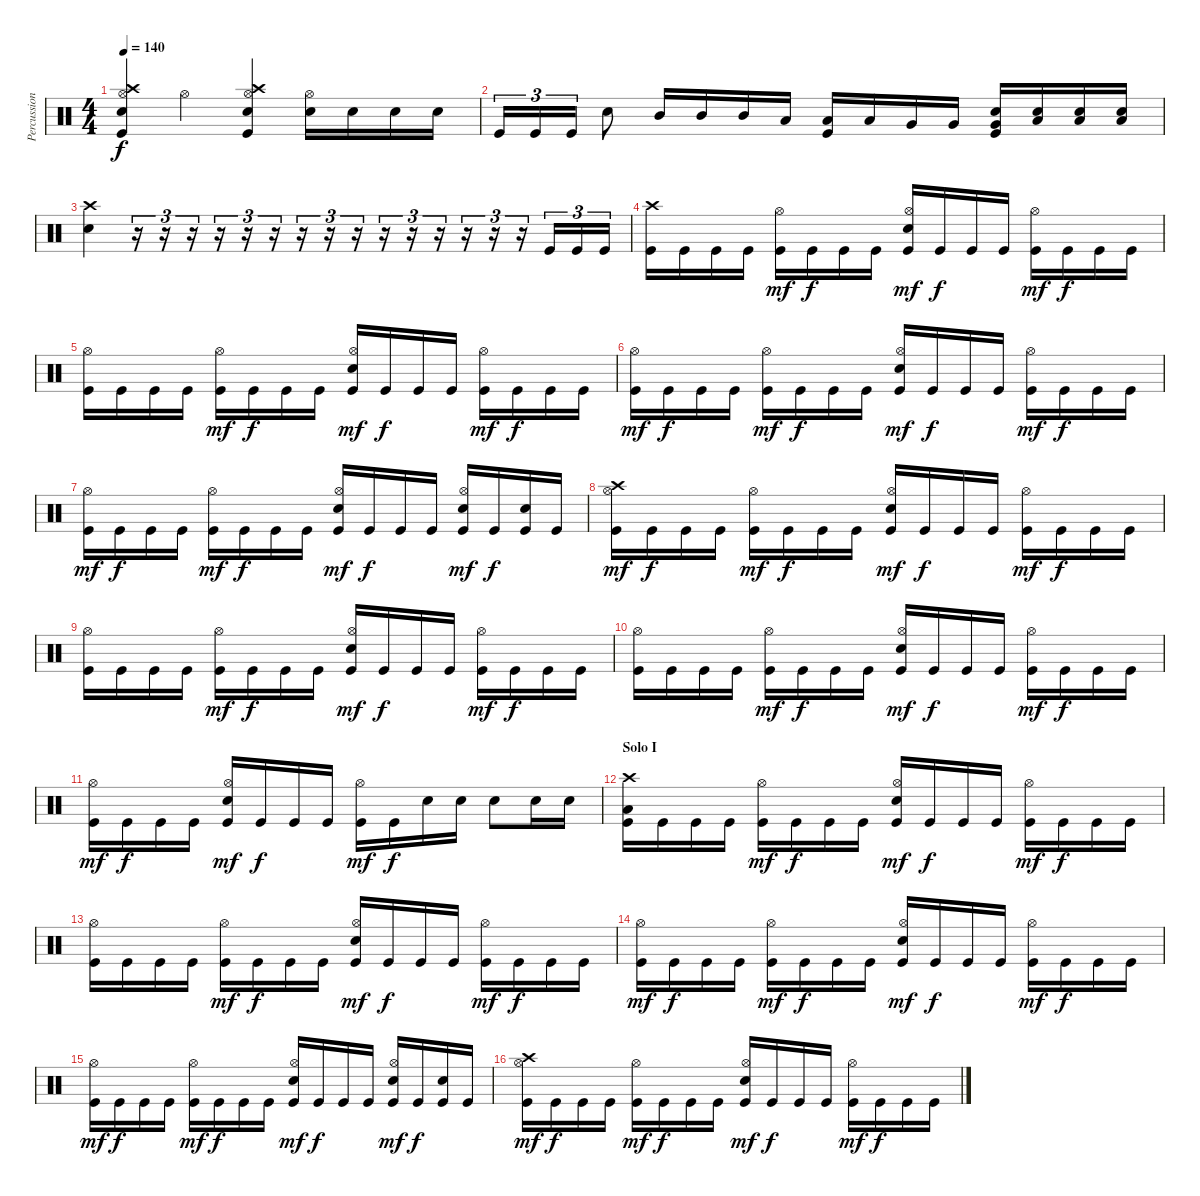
\track ("Percussion" "Percussion") {instrument percussion}
\staff {score}
\articulation defaults
\ts (4 4)
\tempo 140
\clef neutral
\ks c
("Electric Snare (hit)" "Crash high (hit)" "Hi-Hat (open)" "Kick (hit)").4{dy f} "Hi-Hat (open)".4 ("Electric Snare (hit)" "Crash high (hit)" "Hi-Hat (open)" "Kick (hit)").4 ("Electric Snare (hit)" "Hi-Hat (open)").16 "Electric Snare (hit)".16 "Electric Snare (hit)".16 "Electric Snare (hit)".16 |
"Kick (hit)".16{tu (3 2)} "Kick (hit)".16{tu (3 2)} "Kick (hit)".16{tu (3 2)} "Electric Snare (hit)".8 "Mid Tom (hit)".16 "Mid Tom (hit)".16 "Mid Tom (hit)".16 "Low Tom (hit)".16 ("Low Tom (hit)" "Kick (hit)").16 "Low Tom (hit)".16 "Very Low Tom (hit)".16 "Very Low Tom (hit)".16 ("Very Low Tom (hit)" "Electric Snare (hit)" "Kick (hit)").16 ("Low Floor Tom (hit)" "Electric Snare (hit)").16 ("Low Floor Tom (hit)" "Electric Snare (hit)").16 ("Low Floor Tom (hit)" "Electric Snare (hit)").16 |
("Crash high (hit)" "Electric Snare (hit)").4 r.16{tu (3 2)} r.16{tu (3 2)} r.16{tu (3 2)} r.16{tu (3 2)} r.16{tu (3 2)} r.16{tu (3 2)} r.16{tu (3 2)} r.16{tu (3 2)} r.16{tu (3 2)} r.16{tu (3 2)} r.16{tu (3 2)} r.16{tu (3 2)} r.16{tu (3 2)} r.16{tu (3 2)} r.16{tu (3 2)} "Kick (hit)".16{tu (3 2)} "Kick (hit)".16{tu (3 2)} "Kick (hit)".16{tu (3 2)} |
("Kick (hit)" "Crash high (hit)").16 "Kick (hit)".16 "Kick (hit)".16 "Kick (hit)".16 ("Kick (hit)" "Hi-Hat (open)").16{dy mf} "Kick (hit)".16{dy f} "Kick (hit)".16 "Kick (hit)".16 ("Kick (hit)" "Electric Snare (hit)" "Hi-Hat (open)").16{dy mf} "Kick (hit)".16{dy f} "Kick (hit)".16 "Kick (hit)".16 ("Kick (hit)" "Hi-Hat (open)").16{dy mf} "Kick (hit)".16{dy f} "Kick (hit)".16 "Kick (hit)".16 |
("Kick (hit)" "Hi-Hat (open)").16 "Kick (hit)".16 "Kick (hit)".16 "Kick (hit)".16 ("Kick (hit)" "Hi-Hat (open)").16{dy mf} "Kick (hit)".16{dy f} "Kick (hit)".16 "Kick (hit)".16 ("Kick (hit)" "Electric Snare (hit)" "Hi-Hat (open)").16{dy mf} "Kick (hit)".16{dy f} "Kick (hit)".16 "Kick (hit)".16 ("Kick (hit)" "Hi-Hat (open)").16{dy mf} "Kick (hit)".16{dy f} "Kick (hit)".16 "Kick (hit)".16 |
("Kick (hit)" "Hi-Hat (open)").16{dy mf} "Kick (hit)".16{dy f} "Kick (hit)".16 "Kick (hit)".16 ("Kick (hit)" "Hi-Hat (open)").16{dy mf} "Kick (hit)".16{dy f} "Kick (hit)".16 "Kick (hit)".16 ("Kick (hit)" "Electric Snare (hit)" "Hi-Hat (open)").16{dy mf} "Kick (hit)".16{dy f} "Kick (hit)".16 "Kick (hit)".16 ("Kick (hit)" "Hi-Hat (open)").16{dy mf} "Kick (hit)".16{dy f} "Kick (hit)".16 "Kick (hit)".16 |
("Kick (hit)" "Hi-Hat (open)").16{dy mf} "Kick (hit)".16{dy f} "Kick (hit)".16 "Kick (hit)".16 ("Kick (hit)" "Hi-Hat (open)").16{dy mf} "Kick (hit)".16{dy f} "Kick (hit)".16 "Kick (hit)".16 ("Kick (hit)" "Electric Snare (hit)" "Hi-Hat (open)").16{dy mf} "Kick (hit)".16{dy f} "Kick (hit)".16 "Kick (hit)".16 ("Kick (hit)" "Electric Snare (hit)" "Hi-Hat (open)").16{dy mf} "Kick (hit)".16{dy f} ("Kick (hit)" "Electric Snare (hit)").16 "Kick (hit)".16 |
("Kick (hit)" "Hi-Hat (open)" "Crash high (hit)").16{dy mf} "Kick (hit)".16{dy f} "Kick (hit)".16 "Kick (hit)".16 ("Kick (hit)" "Hi-Hat (open)").16{dy mf} "Kick (hit)".16{dy f} "Kick (hit)".16 "Kick (hit)".16 ("Kick (hit)" "Electric Snare (hit)" "Hi-Hat (open)").16{dy mf} "Kick (hit)".16{dy f} "Kick (hit)".16 "Kick (hit)".16 ("Kick (hit)" "Hi-Hat (open)").16{dy mf} "Kick (hit)".16{dy f} "Kick (hit)".16 "Kick (hit)".16 |
("Kick (hit)" "Hi-Hat (open)").16 "Kick (hit)".16 "Kick (hit)".16 "Kick (hit)".16 ("Kick (hit)" "Hi-Hat (open)").16{dy mf} "Kick (hit)".16{dy f} "Kick (hit)".16 "Kick (hit)".16 ("Kick (hit)" "Electric Snare (hit)" "Hi-Hat (open)").16{dy mf} "Kick (hit)".16{dy f} "Kick (hit)".16 "Kick (hit)".16 ("Kick (hit)" "Hi-Hat (open)").16{dy mf} "Kick (hit)".16{dy f} "Kick (hit)".16 "Kick (hit)".16 |
("Kick (hit)" "Hi-Hat (open)").16 "Kick (hit)".16 "Kick (hit)".16 "Kick (hit)".16 ("Kick (hit)" "Hi-Hat (open)").16{dy mf} "Kick (hit)".16{dy f} "Kick (hit)".16 "Kick (hit)".16 ("Kick (hit)" "Electric Snare (hit)" "Hi-Hat (open)").16{dy mf} "Kick (hit)".16{dy f} "Kick (hit)".16 "Kick (hit)".16 ("Kick (hit)" "Hi-Hat (open)").16{dy mf} "Kick (hit)".16{dy f} "Kick (hit)".16 "Kick (hit)".16 |
("Kick (hit)" "Hi-Hat (open)").16{dy mf} "Kick (hit)".16{dy f} "Kick (hit)".16 "Kick (hit)".16 ("Kick (hit)" "Electric Snare (hit)" "Hi-Hat (open)").16{dy mf} "Kick (hit)".16{dy f} "Kick (hit)".16 "Kick (hit)".16 ("Kick (hit)" "Hi-Hat (open)").16{dy mf} "Kick (hit)".16{dy f} "Electric Snare (hit)".16 "Electric Snare (hit)".16 "Electric Snare (hit)".8 "Electric Snare (hit)".16 "Electric Snare (hit)".16 |
\section ("" "Solo I")
("Kick (hit)" "Low Floor Tom (hit)" "Crash high (hit)").16 "Kick (hit)".16 "Kick (hit)".16 "Kick (hit)".16 ("Kick (hit)" "Hi-Hat (open)").16{dy mf} "Kick (hit)".16{dy f} "Kick (hit)".16 "Kick (hit)".16 ("Kick (hit)" "Electric Snare (hit)" "Hi-Hat (open)").16{dy mf} "Kick (hit)".16{dy f} "Kick (hit)".16 "Kick (hit)".16 ("Kick (hit)" "Hi-Hat (open)").16{dy mf} "Kick (hit)".16{dy f} "Kick (hit)".16 "Kick (hit)".16 |
("Kick (hit)" "Hi-Hat (open)").16 "Kick (hit)".16 "Kick (hit)".16 "Kick (hit)".16 ("Kick (hit)" "Hi-Hat (open)").16{dy mf} "Kick (hit)".16{dy f} "Kick (hit)".16 "Kick (hit)".16 ("Kick (hit)" "Electric Snare (hit)" "Hi-Hat (open)").16{dy mf} "Kick (hit)".16{dy f} "Kick (hit)".16 "Kick (hit)".16 ("Kick (hit)" "Hi-Hat (open)").16{dy mf} "Kick (hit)".16{dy f} "Kick (hit)".16 "Kick (hit)".16 |
("Kick (hit)" "Hi-Hat (open)").16{dy mf} "Kick (hit)".16{dy f} "Kick (hit)".16 "Kick (hit)".16 ("Kick (hit)" "Hi-Hat (open)").16{dy mf} "Kick (hit)".16{dy f} "Kick (hit)".16 "Kick (hit)".16 ("Kick (hit)" "Electric Snare (hit)" "Hi-Hat (open)").16{dy mf} "Kick (hit)".16{dy f} "Kick (hit)".16 "Kick (hit)".16 ("Kick (hit)" "Hi-Hat (open)").16{dy mf} "Kick (hit)".16{dy f} "Kick (hit)".16 "Kick (hit)".16 |
("Kick (hit)" "Hi-Hat (open)").16{dy mf} "Kick (hit)".16{dy f} "Kick (hit)".16 "Kick (hit)".16 ("Kick (hit)" "Hi-Hat (open)").16{dy mf} "Kick (hit)".16{dy f} "Kick (hit)".16 "Kick (hit)".16 ("Kick (hit)" "Electric Snare (hit)" "Hi-Hat (open)").16{dy mf} "Kick (hit)".16{dy f} "Kick (hit)".16 "Kick (hit)".16 ("Kick (hit)" "Electric Snare (hit)" "Hi-Hat (open)").16{dy mf} "Kick (hit)".16{dy f} ("Kick (hit)" "Electric Snare (hit)").16 "Kick (hit)".16 |
("Kick (hit)" "Hi-Hat (open)" "Crash high (hit)").16{dy mf} "Kick (hit)".16{dy f} "Kick (hit)".16 "Kick (hit)".16 ("Kick (hit)" "Hi-Hat (open)").16{dy mf} "Kick (hit)".16{dy f} "Kick (hit)".16 "Kick (hit)".16 ("Kick (hit)" "Electric Snare (hit)" "Hi-Hat (open)").16{dy mf} "Kick (hit)".16{dy f} "Kick (hit)".16 "Kick (hit)".16 ("Kick (hit)" "Hi-Hat (open)").16{dy mf} "Kick (hit)".16{dy f} "Kick (hit)".16 "Kick (hit)".16
